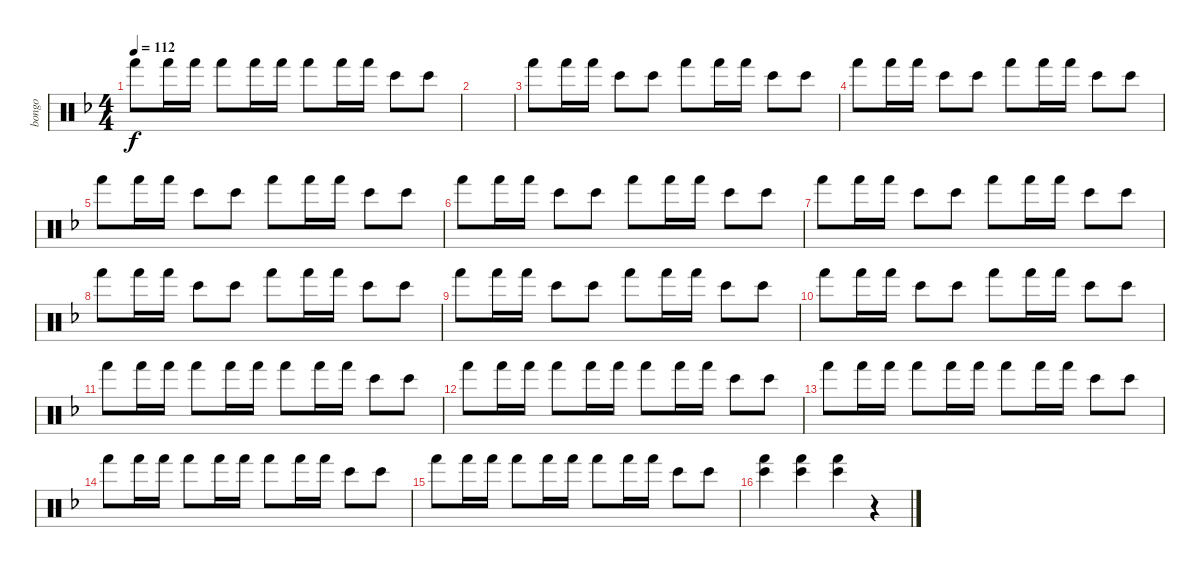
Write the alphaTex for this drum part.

\track ("bongo" "bongo") {instrument percussion}
\staff {score}
\articulation defaults
\ts (4 4)
\tempo 112
\clef neutral
\ks f "Hand (hit)".8{dy f} "Hand (hit)".16 "Hand (hit)".16 "Hand (hit)".8 "Hand (hit)".16 "Hand (hit)".16 "Hand (hit)".8 "Hand (hit)".16 "Hand (hit)".16 "Bongo High (hit)".8 "Bongo High (hit)".8
|
|
"Hand (hit)".8 "Hand (hit)".16 "Hand (hit)".16 "Bongo High (hit)".8 "Bongo High (hit)".8 "Hand (hit)".8 "Hand (hit)".16 "Hand (hit)".16 "Bongo High (hit)".8 "Bongo High (hit)".8 |
"Hand (hit)".8 "Hand (hit)".16 "Hand (hit)".16 "Bongo High (hit)".8 "Bongo High (hit)".8 "Hand (hit)".8 "Hand (hit)".16 "Hand (hit)".16 "Bongo High (hit)".8 "Bongo High (hit)".8 |
"Hand (hit)".8 "Hand (hit)".16 "Hand (hit)".16 "Bongo High (hit)".8 "Bongo High (hit)".8 "Hand (hit)".8 "Hand (hit)".16 "Hand (hit)".16 "Bongo High (hit)".8 "Bongo High (hit)".8 |
"Hand (hit)".8 "Hand (hit)".16 "Hand (hit)".16 "Bongo High (hit)".8 "Bongo High (hit)".8 "Hand (hit)".8 "Hand (hit)".16 "Hand (hit)".16 "Bongo High (hit)".8 "Bongo High (hit)".8 |
"Hand (hit)".8 "Hand (hit)".16 "Hand (hit)".16 "Bongo High (hit)".8 "Bongo High (hit)".8 "Hand (hit)".8 "Hand (hit)".16 "Hand (hit)".16 "Bongo High (hit)".8 "Bongo High (hit)".8 |
"Hand (hit)".8 "Hand (hit)".16 "Hand (hit)".16 "Bongo High (hit)".8 "Bongo High (hit)".8 "Hand (hit)".8 "Hand (hit)".16 "Hand (hit)".16 "Bongo High (hit)".8 "Bongo High (hit)".8 |
"Hand (hit)".8 "Hand (hit)".16 "Hand (hit)".16 "Bongo High (hit)".8 "Bongo High (hit)".8 "Hand (hit)".8 "Hand (hit)".16 "Hand (hit)".16 "Bongo High (hit)".8 "Bongo High (hit)".8 |
"Hand (hit)".8 "Hand (hit)".16 "Hand (hit)".16 "Bongo High (hit)".8 "Bongo High (hit)".8 "Hand (hit)".8 "Hand (hit)".16 "Hand (hit)".16 "Bongo High (hit)".8 "Bongo High (hit)".8 |
"Hand (hit)".8 "Hand (hit)".16 "Hand (hit)".16 "Hand (hit)".8 "Hand (hit)".16 "Hand (hit)".16 "Hand (hit)".8 "Hand (hit)".16 "Hand (hit)".16 "Bongo High (hit)".8 "Bongo High (hit)".8 |
"Hand (hit)".8 "Hand (hit)".16 "Hand (hit)".16 "Hand (hit)".8 "Hand (hit)".16 "Hand (hit)".16 "Hand (hit)".8 "Hand (hit)".16 "Hand (hit)".16 "Bongo High (hit)".8 "Bongo High (hit)".8 |
"Hand (hit)".8 "Hand (hit)".16 "Hand (hit)".16 "Hand (hit)".8 "Hand (hit)".16 "Hand (hit)".16 "Hand (hit)".8 "Hand (hit)".16 "Hand (hit)".16 "Bongo High (hit)".8 "Bongo High (hit)".8 |
"Hand (hit)".8 "Hand (hit)".16 "Hand (hit)".16 "Hand (hit)".8 "Hand (hit)".16 "Hand (hit)".16 "Hand (hit)".8 "Hand (hit)".16 "Hand (hit)".16 "Bongo High (hit)".8 "Bongo High (hit)".8 |
"Hand (hit)".8 "Hand (hit)".16 "Hand (hit)".16 "Hand (hit)".8 "Hand (hit)".16 "Hand (hit)".16 "Hand (hit)".8 "Hand (hit)".16 "Hand (hit)".16 "Bongo High (hit)".8 "Bongo High (hit)".8 |
("Hand (hit)" "Bongo High (hit)").4 ("Hand (hit)" "Bongo High (hit)").4 ("Hand (hit)" "Bongo High (hit)").4 r.4
